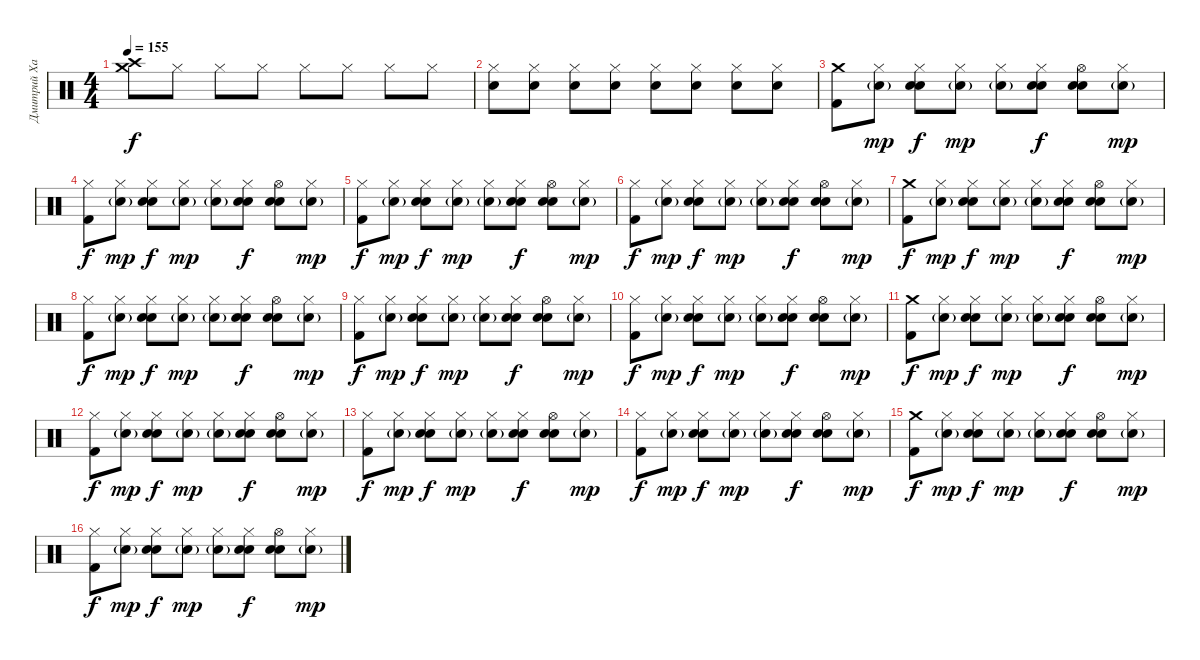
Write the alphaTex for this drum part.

\track ("Дмитрий Хакимов" "Дмитрий Ха") {instrument percussion}
\staff {score}
\articulation defaults
\ts (4 4)
\tempo 155
\clef neutral
\ks c
("Crash medium (hit)" "Crash high (hit)").8{dy f} "Hi-Hat (closed)".8 "Hi-Hat (closed)".8 "Hi-Hat (closed)".8 "Hi-Hat (closed)".8 "Hi-Hat (closed)".8 "Hi-Hat (closed)".8 "Hi-Hat (closed)".8 |
("Hi-Hat (closed)" "Electric Snare (hit)").8 ("Hi-Hat (closed)" "Electric Snare (hit)").8 ("Hi-Hat (closed)" "Electric Snare (hit)").8 ("Hi-Hat (closed)" "Electric Snare (hit)").8 ("Hi-Hat (closed)" "Electric Snare (hit)").8 ("Hi-Hat (closed)" "Electric Snare (hit)").8 ("Hi-Hat (closed)" "Electric Snare (hit)").8 ("Hi-Hat (closed)" "Electric Snare (hit)").8 |
("Crash medium (hit)" "Kick (hit) 2").8 ("Hi-Hat (closed)" "Electric Snare (hit)"{g}).8{dy mp} ("Hi-Hat (closed)" "Electric Snare (hit)" "Hand Clap (hit)").8{dy f} ("Hi-Hat (closed)" "Electric Snare (hit)"{g}).8{dy mp} ("Hi-Hat (closed)" "Electric Snare (hit)"{g}).8 ("Hi-Hat (closed)" "Electric Snare (hit)" "Hand Clap (hit)").8{dy f} ("Hi-Hat (open)" "Electric Snare (hit)" "Hand Clap (hit)").8 ("Hi-Hat (closed)" "Electric Snare (hit)"{g}).8{dy mp} |
("Hi-Hat (closed)" "Kick (hit) 2").8{dy f} ("Hi-Hat (closed)" "Electric Snare (hit)"{g}).8{dy mp} ("Hi-Hat (closed)" "Electric Snare (hit)" "Hand Clap (hit)").8{dy f} ("Hi-Hat (closed)" "Electric Snare (hit)"{g}).8{dy mp} ("Hi-Hat (closed)" "Electric Snare (hit)"{g}).8 ("Hi-Hat (closed)" "Electric Snare (hit)" "Hand Clap (hit)").8{dy f} ("Hi-Hat (open)" "Electric Snare (hit)" "Hand Clap (hit)").8 ("Hi-Hat (closed)" "Electric Snare (hit)"{g}).8{dy mp} |
("Hi-Hat (closed)" "Kick (hit) 2").8{dy f} ("Hi-Hat (closed)" "Electric Snare (hit)"{g}).8{dy mp} ("Hi-Hat (closed)" "Electric Snare (hit)" "Hand Clap (hit)").8{dy f} ("Hi-Hat (closed)" "Electric Snare (hit)"{g}).8{dy mp} ("Hi-Hat (closed)" "Electric Snare (hit)"{g}).8 ("Hi-Hat (closed)" "Electric Snare (hit)" "Hand Clap (hit)").8{dy f} ("Hi-Hat (open)" "Electric Snare (hit)" "Hand Clap (hit)").8 ("Hi-Hat (closed)" "Electric Snare (hit)"{g}).8{dy mp} |
("Hi-Hat (closed)" "Kick (hit) 2").8{dy f} ("Hi-Hat (closed)" "Electric Snare (hit)"{g}).8{dy mp} ("Hi-Hat (closed)" "Electric Snare (hit)" "Hand Clap (hit)").8{dy f} ("Hi-Hat (closed)" "Electric Snare (hit)"{g}).8{dy mp} ("Hi-Hat (closed)" "Electric Snare (hit)"{g}).8 ("Hi-Hat (closed)" "Electric Snare (hit)" "Hand Clap (hit)").8{dy f} ("Hi-Hat (open)" "Electric Snare (hit)" "Hand Clap (hit)").8 ("Hi-Hat (closed)" "Electric Snare (hit)"{g}).8{dy mp} |
("Crash medium (hit)" "Kick (hit) 2").8{dy f} ("Hi-Hat (closed)" "Electric Snare (hit)"{g}).8{dy mp} ("Hi-Hat (closed)" "Electric Snare (hit)" "Hand Clap (hit)").8{dy f} ("Hi-Hat (closed)" "Electric Snare (hit)"{g}).8{dy mp} ("Hi-Hat (closed)" "Electric Snare (hit)"{g}).8 ("Hi-Hat (closed)" "Electric Snare (hit)" "Hand Clap (hit)").8{dy f} ("Hi-Hat (open)" "Electric Snare (hit)" "Hand Clap (hit)").8 ("Hi-Hat (closed)" "Electric Snare (hit)"{g}).8{dy mp} |
("Hi-Hat (closed)" "Kick (hit) 2").8{dy f} ("Hi-Hat (closed)" "Electric Snare (hit)"{g}).8{dy mp} ("Hi-Hat (closed)" "Electric Snare (hit)" "Hand Clap (hit)").8{dy f} ("Hi-Hat (closed)" "Electric Snare (hit)"{g}).8{dy mp} ("Hi-Hat (closed)" "Electric Snare (hit)"{g}).8 ("Hi-Hat (closed)" "Electric Snare (hit)" "Hand Clap (hit)").8{dy f} ("Hi-Hat (open)" "Electric Snare (hit)" "Hand Clap (hit)").8 ("Hi-Hat (closed)" "Electric Snare (hit)"{g}).8{dy mp} |
("Hi-Hat (closed)" "Kick (hit) 2").8{dy f} ("Hi-Hat (closed)" "Electric Snare (hit)"{g}).8{dy mp} ("Hi-Hat (closed)" "Electric Snare (hit)" "Hand Clap (hit)").8{dy f} ("Hi-Hat (closed)" "Electric Snare (hit)"{g}).8{dy mp} ("Hi-Hat (closed)" "Electric Snare (hit)"{g}).8 ("Hi-Hat (closed)" "Electric Snare (hit)" "Hand Clap (hit)").8{dy f} ("Hi-Hat (open)" "Electric Snare (hit)" "Hand Clap (hit)").8 ("Hi-Hat (closed)" "Electric Snare (hit)"{g}).8{dy mp} |
("Hi-Hat (closed)" "Kick (hit) 2").8{dy f} ("Hi-Hat (closed)" "Electric Snare (hit)"{g}).8{dy mp} ("Hi-Hat (closed)" "Electric Snare (hit)" "Hand Clap (hit)").8{dy f} ("Hi-Hat (closed)" "Electric Snare (hit)"{g}).8{dy mp} ("Hi-Hat (closed)" "Electric Snare (hit)"{g}).8 ("Hi-Hat (closed)" "Electric Snare (hit)" "Hand Clap (hit)").8{dy f} ("Hi-Hat (open)" "Electric Snare (hit)" "Hand Clap (hit)").8 ("Hi-Hat (closed)" "Electric Snare (hit)"{g}).8{dy mp} |
("Crash medium (hit)" "Kick (hit) 2").8{dy f} ("Hi-Hat (closed)" "Electric Snare (hit)"{g}).8{dy mp} ("Hi-Hat (closed)" "Electric Snare (hit)" "Hand Clap (hit)").8{dy f} ("Hi-Hat (closed)" "Electric Snare (hit)"{g}).8{dy mp} ("Hi-Hat (closed)" "Electric Snare (hit)"{g}).8 ("Hi-Hat (closed)" "Electric Snare (hit)" "Hand Clap (hit)").8{dy f} ("Hi-Hat (open)" "Electric Snare (hit)" "Hand Clap (hit)").8 ("Hi-Hat (closed)" "Electric Snare (hit)"{g}).8{dy mp} |
("Hi-Hat (closed)" "Kick (hit) 2").8{dy f} ("Hi-Hat (closed)" "Electric Snare (hit)"{g}).8{dy mp} ("Hi-Hat (closed)" "Electric Snare (hit)" "Hand Clap (hit)").8{dy f} ("Hi-Hat (closed)" "Electric Snare (hit)"{g}).8{dy mp} ("Hi-Hat (closed)" "Electric Snare (hit)"{g}).8 ("Hi-Hat (closed)" "Electric Snare (hit)" "Hand Clap (hit)").8{dy f} ("Hi-Hat (open)" "Electric Snare (hit)" "Hand Clap (hit)").8 ("Hi-Hat (closed)" "Electric Snare (hit)"{g}).8{dy mp} |
("Hi-Hat (closed)" "Kick (hit) 2").8{dy f} ("Hi-Hat (closed)" "Electric Snare (hit)"{g}).8{dy mp} ("Hi-Hat (closed)" "Electric Snare (hit)" "Hand Clap (hit)").8{dy f} ("Hi-Hat (closed)" "Electric Snare (hit)"{g}).8{dy mp} ("Hi-Hat (closed)" "Electric Snare (hit)"{g}).8 ("Hi-Hat (closed)" "Electric Snare (hit)" "Hand Clap (hit)").8{dy f} ("Hi-Hat (open)" "Electric Snare (hit)" "Hand Clap (hit)").8 ("Hi-Hat (closed)" "Electric Snare (hit)"{g}).8{dy mp} |
("Hi-Hat (closed)" "Kick (hit) 2").8{dy f} ("Hi-Hat (closed)" "Electric Snare (hit)"{g}).8{dy mp} ("Hi-Hat (closed)" "Electric Snare (hit)" "Hand Clap (hit)").8{dy f} ("Hi-Hat (closed)" "Electric Snare (hit)"{g}).8{dy mp} ("Hi-Hat (closed)" "Electric Snare (hit)"{g}).8 ("Hi-Hat (closed)" "Electric Snare (hit)" "Hand Clap (hit)").8{dy f} ("Hi-Hat (open)" "Electric Snare (hit)" "Hand Clap (hit)").8 ("Hi-Hat (closed)" "Electric Snare (hit)"{g}).8{dy mp} |
("Crash medium (hit)" "Kick (hit) 2").8{dy f} ("Hi-Hat (closed)" "Electric Snare (hit)"{g}).8{dy mp} ("Hi-Hat (closed)" "Electric Snare (hit)" "Hand Clap (hit)").8{dy f} ("Hi-Hat (closed)" "Electric Snare (hit)"{g}).8{dy mp} ("Hi-Hat (closed)" "Electric Snare (hit)"{g}).8 ("Hi-Hat (closed)" "Electric Snare (hit)" "Hand Clap (hit)").8{dy f} ("Hi-Hat (open)" "Electric Snare (hit)" "Hand Clap (hit)").8 ("Hi-Hat (closed)" "Electric Snare (hit)"{g}).8{dy mp} |
("Hi-Hat (closed)" "Kick (hit) 2").8{dy f} ("Hi-Hat (closed)" "Electric Snare (hit)"{g}).8{dy mp} ("Hi-Hat (closed)" "Electric Snare (hit)" "Hand Clap (hit)").8{dy f} ("Hi-Hat (closed)" "Electric Snare (hit)"{g}).8{dy mp} ("Hi-Hat (closed)" "Electric Snare (hit)"{g}).8 ("Hi-Hat (closed)" "Electric Snare (hit)" "Hand Clap (hit)").8{dy f} ("Hi-Hat (open)" "Electric Snare (hit)" "Hand Clap (hit)").8 ("Hi-Hat (closed)" "Electric Snare (hit)"{g}).8{dy mp}
